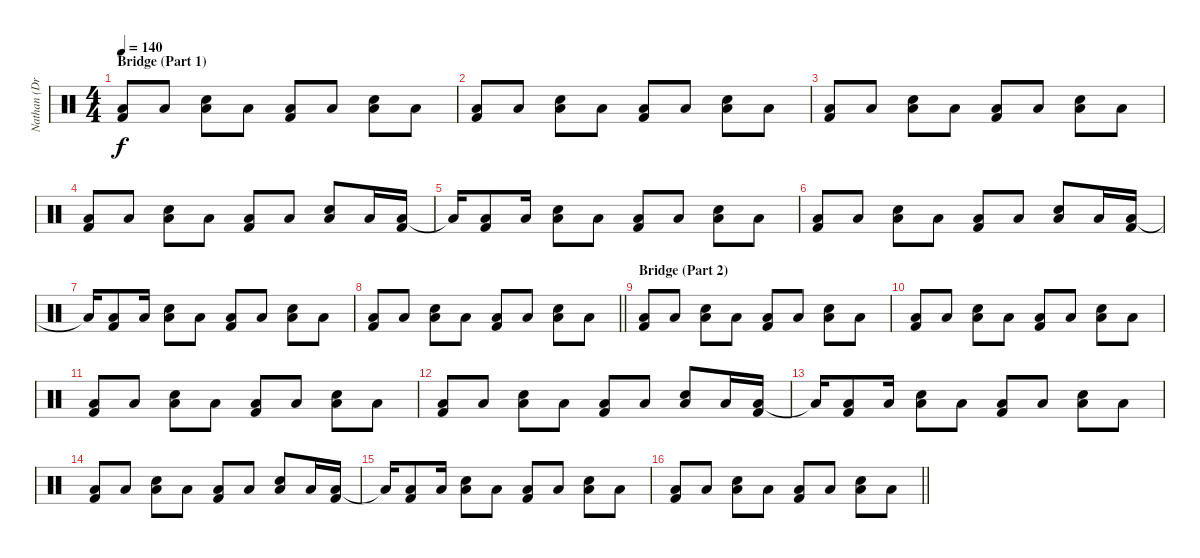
\track ("Nathan (Drums)" "Nathan (Dr") {instrument percussion}
\staff {score}
\articulation defaults
\ts (4 4)
\section ("" "Bridge (Part 1)")
\tempo 140
\clef neutral
\ks c
("Low Floor Tom (hit)" "Kick (hit) 2").8{dy f} "Low Floor Tom (hit)".8 ("Low Floor Tom (hit)" "Electric Snare (hit)").8 "Low Floor Tom (hit)".8 ("Low Floor Tom (hit)" "Kick (hit) 2").8 "Low Floor Tom (hit)".8 ("Low Floor Tom (hit)" "Electric Snare (hit)").8 "Low Floor Tom (hit)".8 |
("Low Floor Tom (hit)" "Kick (hit) 2").8 "Low Floor Tom (hit)".8 ("Low Floor Tom (hit)" "Electric Snare (hit)").8 "Low Floor Tom (hit)".8 ("Low Floor Tom (hit)" "Kick (hit) 2").8 "Low Floor Tom (hit)".8 ("Low Floor Tom (hit)" "Electric Snare (hit)").8 "Low Floor Tom (hit)".8 |
("Low Floor Tom (hit)" "Kick (hit) 2").8 "Low Floor Tom (hit)".8 ("Low Floor Tom (hit)" "Electric Snare (hit)").8 "Low Floor Tom (hit)".8 ("Low Floor Tom (hit)" "Kick (hit) 2").8 "Low Floor Tom (hit)".8 ("Low Floor Tom (hit)" "Electric Snare (hit)").8 "Low Floor Tom (hit)".8 |
("Low Floor Tom (hit)" "Kick (hit) 2").8 "Low Floor Tom (hit)".8 ("Low Floor Tom (hit)" "Electric Snare (hit)").8 "Low Floor Tom (hit)".8 ("Low Floor Tom (hit)" "Kick (hit) 2").8 "Low Floor Tom (hit)".8 ("Low Floor Tom (hit)" "Electric Snare (hit)").8 "Low Floor Tom (hit)".16 ("Low Tom (hit)" "Kick (hit) 2").16 |
"Low Tom (hit)"{t}.16 ("Low Tom (hit)" "Kick (hit) 2").8 "Low Tom (hit)".16 ("Low Floor Tom (hit)" "Electric Snare (hit)").8 "Low Floor Tom (hit)".8 ("Low Floor Tom (hit)" "Kick (hit) 2").8 "Low Floor Tom (hit)".8 ("Low Floor Tom (hit)" "Electric Snare (hit)").8 "Low Floor Tom (hit)".8 |
("Low Floor Tom (hit)" "Kick (hit) 2").8 "Low Floor Tom (hit)".8 ("Low Floor Tom (hit)" "Electric Snare (hit)").8 "Low Floor Tom (hit)".8 ("Low Floor Tom (hit)" "Kick (hit) 2").8 "Low Floor Tom (hit)".8 ("Low Floor Tom (hit)" "Electric Snare (hit)").8 "Low Floor Tom (hit)".16 ("Low Tom (hit)" "Kick (hit) 2").16 |
"Low Tom (hit)"{t}.16 ("Low Tom (hit)" "Kick (hit) 2").8 "Low Tom (hit)".16 ("Low Floor Tom (hit)" "Electric Snare (hit)").8 "Low Floor Tom (hit)".8 ("Low Floor Tom (hit)" "Kick (hit) 2").8 "Low Floor Tom (hit)".8 ("Low Floor Tom (hit)" "Electric Snare (hit)").8 "Low Floor Tom (hit)".8 |
\barLineRight lightlight
("Low Floor Tom (hit)" "Kick (hit) 2").8 "Low Floor Tom (hit)".8 ("Low Floor Tom (hit)" "Electric Snare (hit)").8 "Low Floor Tom (hit)".8 ("Low Floor Tom (hit)" "Kick (hit) 2").8 "Low Floor Tom (hit)".8 ("Low Floor Tom (hit)" "Electric Snare (hit)").8 "Low Floor Tom (hit)".8 |
\section ("" "Bridge (Part 2)")
("Low Floor Tom (hit)" "Kick (hit) 2").8 "Low Floor Tom (hit)".8 ("Low Floor Tom (hit)" "Electric Snare (hit)").8 "Low Floor Tom (hit)".8 ("Low Floor Tom (hit)" "Kick (hit) 2").8 "Low Floor Tom (hit)".8 ("Low Floor Tom (hit)" "Electric Snare (hit)").8 "Low Floor Tom (hit)".8 |
("Low Floor Tom (hit)" "Kick (hit) 2").8 "Low Floor Tom (hit)".8 ("Low Floor Tom (hit)" "Electric Snare (hit)").8 "Low Floor Tom (hit)".8 ("Low Floor Tom (hit)" "Kick (hit) 2").8 "Low Floor Tom (hit)".8 ("Low Floor Tom (hit)" "Electric Snare (hit)").8 "Low Floor Tom (hit)".8 |
("Low Floor Tom (hit)" "Kick (hit) 2").8 "Low Floor Tom (hit)".8 ("Low Floor Tom (hit)" "Electric Snare (hit)").8 "Low Floor Tom (hit)".8 ("Low Floor Tom (hit)" "Kick (hit) 2").8 "Low Floor Tom (hit)".8 ("Low Floor Tom (hit)" "Electric Snare (hit)").8 "Low Floor Tom (hit)".8 |
("Low Floor Tom (hit)" "Kick (hit) 2").8 "Low Floor Tom (hit)".8 ("Low Floor Tom (hit)" "Electric Snare (hit)").8 "Low Floor Tom (hit)".8 ("Low Floor Tom (hit)" "Kick (hit) 2").8 "Low Floor Tom (hit)".8 ("Low Floor Tom (hit)" "Electric Snare (hit)").8 "Low Floor Tom (hit)".16 ("Low Tom (hit)" "Kick (hit) 2").16 |
"Low Tom (hit)"{t}.16 ("Low Tom (hit)" "Kick (hit) 2").8 "Low Tom (hit)".16 ("Low Floor Tom (hit)" "Electric Snare (hit)").8 "Low Floor Tom (hit)".8 ("Low Floor Tom (hit)" "Kick (hit) 2").8 "Low Floor Tom (hit)".8 ("Low Floor Tom (hit)" "Electric Snare (hit)").8 "Low Floor Tom (hit)".8 |
("Low Floor Tom (hit)" "Kick (hit) 2").8 "Low Floor Tom (hit)".8 ("Low Floor Tom (hit)" "Electric Snare (hit)").8 "Low Floor Tom (hit)".8 ("Low Floor Tom (hit)" "Kick (hit) 2").8 "Low Floor Tom (hit)".8 ("Low Floor Tom (hit)" "Electric Snare (hit)").8 "Low Floor Tom (hit)".16 ("Low Tom (hit)" "Kick (hit) 2").16 |
"Low Tom (hit)"{t}.16 ("Low Tom (hit)" "Kick (hit) 2").8 "Low Tom (hit)".16 ("Low Floor Tom (hit)" "Electric Snare (hit)").8 "Low Floor Tom (hit)".8 ("Low Floor Tom (hit)" "Kick (hit) 2").8 "Low Floor Tom (hit)".8 ("Low Floor Tom (hit)" "Electric Snare (hit)").8 "Low Floor Tom (hit)".8 |
\barLineRight lightlight
("Low Floor Tom (hit)" "Kick (hit) 2").8 "Low Floor Tom (hit)".8 ("Low Floor Tom (hit)" "Electric Snare (hit)").8 "Low Floor Tom (hit)".8 ("Low Floor Tom (hit)" "Kick (hit) 2").8 "Low Floor Tom (hit)".8 ("Low Floor Tom (hit)" "Electric Snare (hit)").8 "Low Floor Tom (hit)".8
